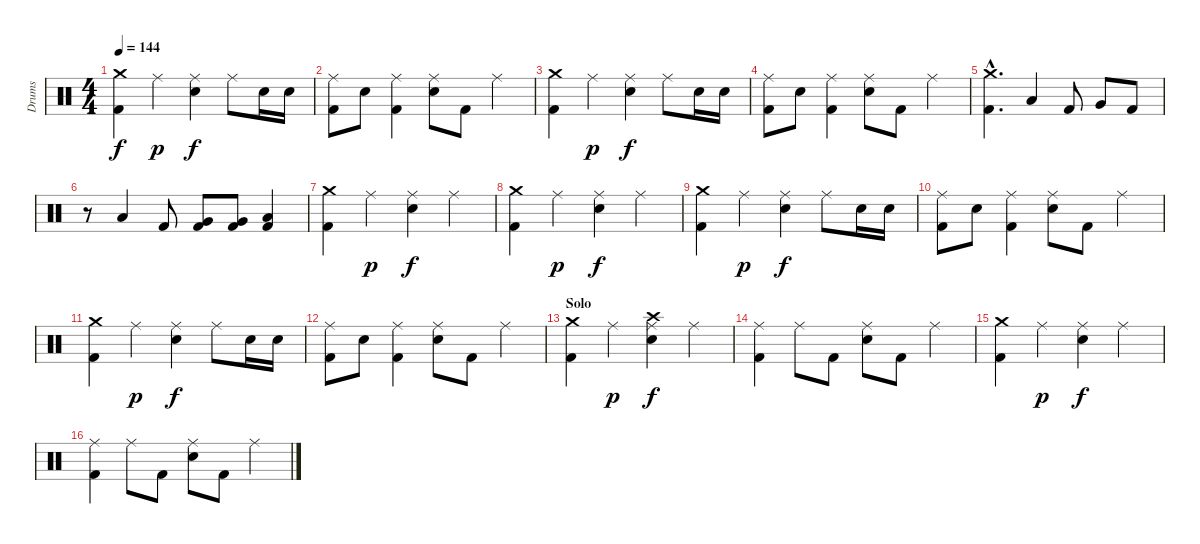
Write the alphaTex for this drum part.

\track ("Drums" "Drums") {instrument percussion}
\staff {score}
\articulation defaults
\ts (4 4)
\tempo 144
\clef neutral
\ks c
("Crash medium (hit)" "Kick (hit) 2").4{dy f} "Ride (middle)".4{dy p} ("Ride (middle)" "Snare (hit) 2").4{dy f} "Ride (middle)".8 "Snare (hit) 2".16 "Snare (hit) 2".16 |
("Ride (middle)" "Kick (hit) 2").8 "Snare (hit) 2".8 ("Ride (middle)" "Kick (hit) 2").4 ("Ride (middle)" "Snare (hit) 2").8 "Kick (hit) 2".8 "Ride (middle)".4 |
("Crash medium (hit)" "Kick (hit) 2").4 "Ride (middle)".4{dy p} ("Ride (middle)" "Snare (hit) 2").4{dy f} "Ride (middle)".8 "Snare (hit) 2".16 "Snare (hit) 2".16 |
("Ride (middle)" "Kick (hit) 2").8 "Snare (hit) 2".8 ("Ride (middle)" "Kick (hit) 2").4 ("Ride (middle)" "Snare (hit) 2").8 "Kick (hit) 2".8 "Ride (middle)".4 |
("Crash medium (hit)"{hac} "Kick (hit) 2"{hac}).4{d} "Low Tom (hit)".4 "Kick (hit) 2".8 "Very Low Tom (hit)".8 "Kick (hit) 2".8 |
r.8 "Low Tom (hit)".4 "Kick (hit) 2".8 ("Very Low Tom (hit)" "Kick (hit) 2").8 ("Very Low Tom (hit)" "Kick (hit) 2").8 ("Low Floor Tom (hit)" "Kick (hit) 2").4 |
("Crash medium (hit)" "Kick (hit) 2").4 "Ride (middle)".4{dy p} ("Ride (middle)" "Snare (hit) 2").4{dy f} "Ride (middle)".4 |
("Crash medium (hit)" "Kick (hit) 2").4 "Ride (middle)".4{dy p} ("Ride (middle)" "Snare (hit) 2").4{dy f} "Ride (middle)".4 |
("Crash medium (hit)" "Kick (hit) 2").4 "Ride (middle)".4{dy p} ("Ride (middle)" "Snare (hit) 2").4{dy f} "Ride (middle)".8 "Snare (hit) 2".16 "Snare (hit) 2".16 |
("Ride (middle)" "Kick (hit) 2").8 "Snare (hit) 2".8 ("Ride (middle)" "Kick (hit) 2").4 ("Ride (middle)" "Snare (hit) 2").8 "Kick (hit) 2".8 "Ride (middle)".4 |
("Crash medium (hit)" "Kick (hit) 2").4 "Ride (middle)".4{dy p} ("Ride (middle)" "Snare (hit) 2").4{dy f} "Ride (middle)".8 "Snare (hit) 2".16 "Snare (hit) 2".16 |
("Ride (middle)" "Kick (hit) 2").8 "Snare (hit) 2".8 ("Ride (middle)" "Kick (hit) 2").4 ("Ride (middle)" "Snare (hit) 2").8 "Kick (hit) 2".8 "Ride (middle)".4 |
\section ("" "Solo")
("Crash medium (hit)" "Kick (hit) 2").4 "Ride (middle)".4{dy p} ("Crash high (hit)" "Ride (middle)" "Snare (hit) 2").4{dy f} "Ride (middle)".4 |
("Ride (middle)" "Kick (hit) 2").4 "Ride (middle)".8 "Kick (hit) 2".8 ("Ride (middle)" "Snare (hit) 2").8 "Kick (hit) 2".8 "Ride (middle)".4 |
("Crash medium (hit)" "Kick (hit) 2").4 "Ride (middle)".4{dy p} ("Ride (middle)" "Snare (hit) 2").4{dy f} "Ride (middle)".4 |
("Ride (middle)" "Kick (hit) 2").4 "Ride (middle)".8 "Kick (hit) 2".8 ("Ride (middle)" "Snare (hit) 2").8 "Kick (hit) 2".8 "Ride (middle)".4
